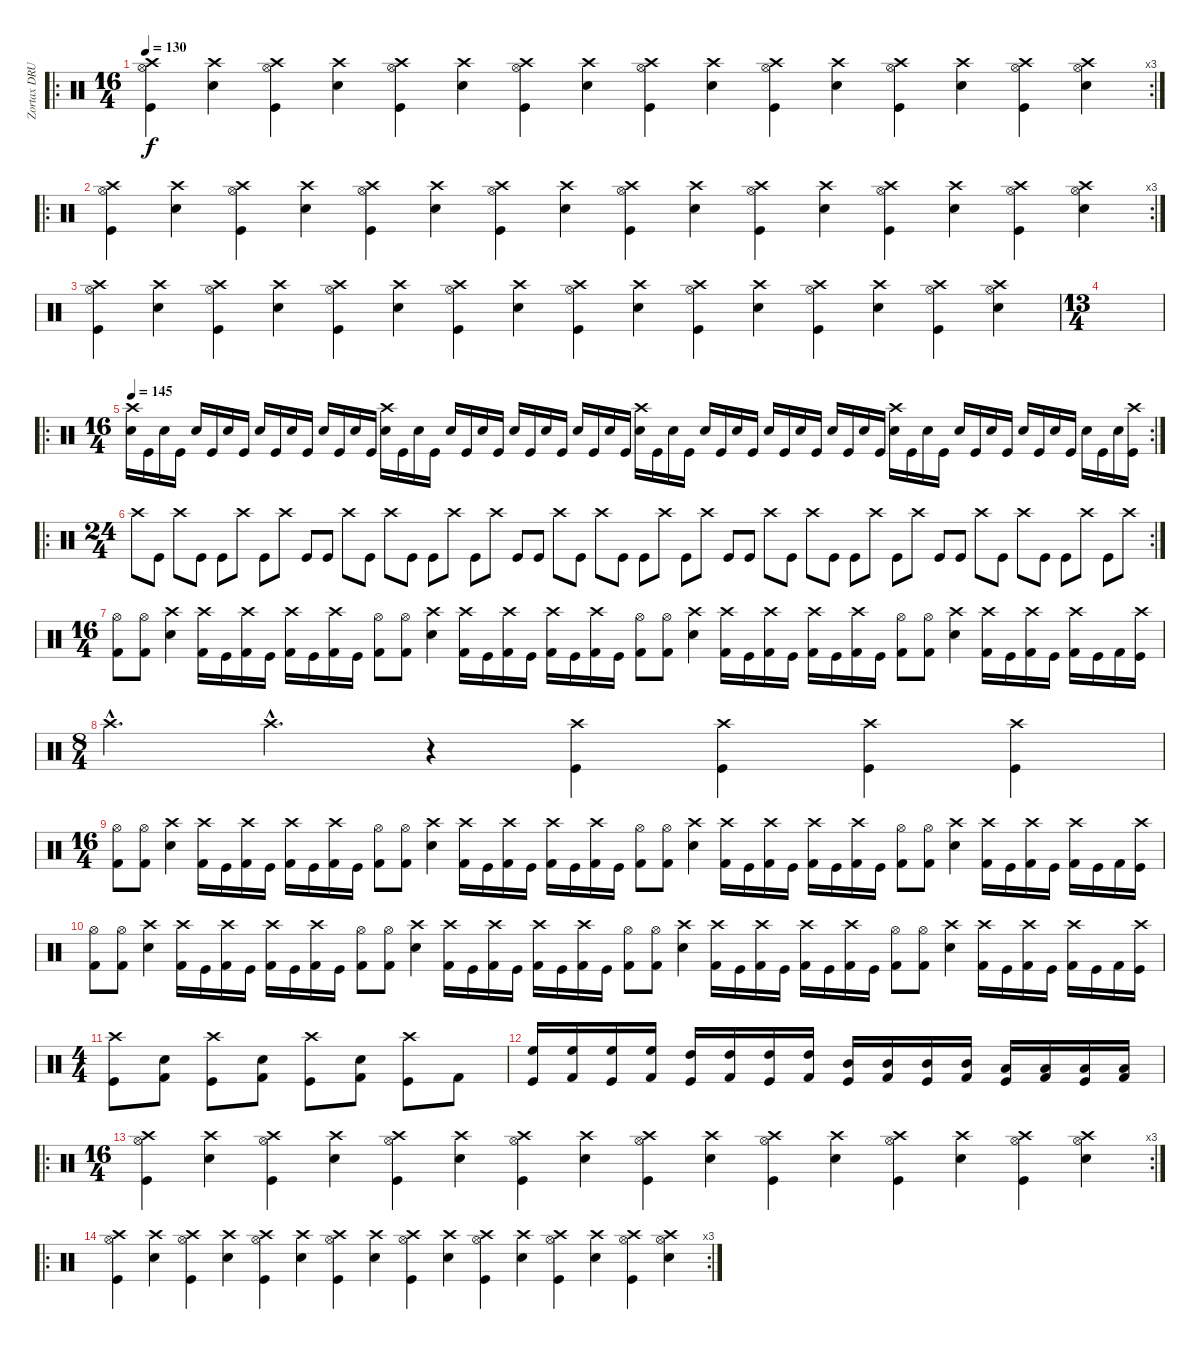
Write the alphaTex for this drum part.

\track ("Zortax DRUMS" "Zortax DRU") {instrument percussion}
\staff {score}
\articulation defaults
\ro
\rc 3
\ts (16 4)
\tempo 130
\clef neutral
\ks c
("Kick (hit)" "Hi-Hat (open)" "Crash high (hit)").4{dy f} ("Snare (hit) 2" "Crash high (hit)").4 ("Kick (hit)" "Hi-Hat (open)" "Crash high (hit)").4 ("Snare (hit) 2" "Crash high (hit)").4 ("Kick (hit)" "Hi-Hat (open)" "Crash high (hit)").4 ("Snare (hit) 2" "Crash high (hit)").4 ("Kick (hit)" "Hi-Hat (open)" "Crash high (hit)").4 ("Snare (hit) 2" "Crash high (hit)").4 ("Kick (hit)" "Hi-Hat (open)" "Crash high (hit)").4 ("Snare (hit) 2" "Crash high (hit)").4 ("Kick (hit)" "Hi-Hat (open)" "Crash high (hit)").4 ("Snare (hit) 2" "Crash high (hit)").4 ("Kick (hit)" "Hi-Hat (open)" "Crash high (hit)").4 ("Snare (hit) 2" "Crash high (hit)").4 ("Kick (hit)" "Hi-Hat (open)" "Crash high (hit)").4 ("Snare (hit) 2" "Hi-Hat (open)" "Crash high (hit)").4 |
\ro
\rc 3
("Kick (hit)" "Hi-Hat (open)" "Crash high (hit)").4 ("Snare (hit) 2" "Crash high (hit)").4 ("Kick (hit)" "Hi-Hat (open)" "Crash high (hit)").4 ("Snare (hit) 2" "Crash high (hit)").4 ("Kick (hit)" "Hi-Hat (open)" "Crash high (hit)").4 ("Snare (hit) 2" "Crash high (hit)").4 ("Kick (hit)" "Hi-Hat (open)" "Crash high (hit)").4 ("Snare (hit) 2" "Crash high (hit)").4 ("Kick (hit)" "Hi-Hat (open)" "Crash high (hit)").4 ("Snare (hit) 2" "Crash high (hit)").4 ("Kick (hit)" "Hi-Hat (open)" "Crash high (hit)").4 ("Snare (hit) 2" "Crash high (hit)").4 ("Kick (hit)" "Hi-Hat (open)" "Crash high (hit)").4 ("Snare (hit) 2" "Crash high (hit)").4 ("Kick (hit)" "Hi-Hat (open)" "Crash high (hit)").4 ("Snare (hit) 2" "Hi-Hat (open)" "Crash high (hit)").4 |
("Kick (hit)" "Hi-Hat (open)" "Crash high (hit)").4 ("Snare (hit) 2" "Crash high (hit)").4 ("Kick (hit)" "Hi-Hat (open)" "Crash high (hit)").4 ("Snare (hit) 2" "Crash high (hit)").4 ("Kick (hit)" "Hi-Hat (open)" "Crash high (hit)").4 ("Snare (hit) 2" "Crash high (hit)").4 ("Kick (hit)" "Hi-Hat (open)" "Crash high (hit)").4 ("Snare (hit) 2" "Crash high (hit)").4 ("Kick (hit)" "Hi-Hat (open)" "Crash high (hit)").4 ("Snare (hit) 2" "Crash high (hit)").4 ("Kick (hit)" "Hi-Hat (open)" "Crash high (hit)").4 ("Snare (hit) 2" "Crash high (hit)").4 ("Kick (hit)" "Hi-Hat (open)" "Crash high (hit)").4 ("Snare (hit) 2" "Crash high (hit)").4 ("Kick (hit)" "Hi-Hat (open)" "Crash high (hit)").4 ("Snare (hit) 2" "Hi-Hat (open)" "Crash high (hit)").4 |
\ts (13 4)
|
\ro
\rc 2
\ts (16 4)
\tempo 145
("Crash high (hit)" "Electric Snare (hit)").16 "Kick (hit)".16 "Electric Snare (hit)".16 "Kick (hit)".16 "Electric Snare (hit)".16 "Kick (hit)".16 "Electric Snare (hit)".16 "Kick (hit)".16 "Electric Snare (hit)".16 "Kick (hit)".16 "Electric Snare (hit)".16 "Kick (hit)".16 "Electric Snare (hit)".16 "Kick (hit)".16 "Electric Snare (hit)".16 "Kick (hit)".16 ("Crash high (hit)" "Electric Snare (hit)").16 "Kick (hit)".16 "Electric Snare (hit)".16 "Kick (hit)".16 "Electric Snare (hit)".16 "Kick (hit)".16 "Electric Snare (hit)".16 "Kick (hit)".16 "Electric Snare (hit)".16 "Kick (hit)".16 "Electric Snare (hit)".16 "Kick (hit)".16 "Electric Snare (hit)".16 "Kick (hit)".16 "Electric Snare (hit)".16 "Kick (hit)".16 ("Crash high (hit)" "Electric Snare (hit)").16 "Kick (hit)".16 "Electric Snare (hit)".16 "Kick (hit)".16 "Electric Snare (hit)".16 "Kick (hit)".16 "Electric Snare (hit)".16 "Kick (hit)".16 "Electric Snare (hit)".16 "Kick (hit)".16 "Electric Snare (hit)".16 "Kick (hit)".16 "Electric Snare (hit)".16 "Kick (hit)".16 "Electric Snare (hit)".16 "Kick (hit)".16 ("Crash high (hit)" "Electric Snare (hit)").16 "Kick (hit)".16 "Electric Snare (hit)".16 "Kick (hit)".16 "Electric Snare (hit)".16 "Kick (hit)".16 "Electric Snare (hit)".16 "Kick (hit)".16 "Electric Snare (hit)".16 "Kick (hit)".16 "Electric Snare (hit)".16 "Kick (hit)".16 "Electric Snare (hit)".16 "Kick (hit)".16 "Electric Snare (hit)".16 ("Crash high (hit)" "Kick (hit)").16 |
\ro
\rc 2
\ts (24 4)
"Crash high (hit)".8 "Kick (hit)".8 "Crash high (hit)".8 "Kick (hit)".8 "Kick (hit)".8 "Crash high (hit)".8 "Kick (hit)".8 "Crash high (hit)".8 "Kick (hit)".8 "Kick (hit)".8 "Crash high (hit)".8 "Kick (hit)".8 "Crash high (hit)".8 "Kick (hit)".8 "Kick (hit)".8 "Crash high (hit)".8 "Kick (hit)".8 "Crash high (hit)".8 "Kick (hit)".8 "Kick (hit)".8 "Crash high (hit)".8 "Kick (hit)".8 "Crash high (hit)".8 "Kick (hit)".8 "Kick (hit)".8 "Crash high (hit)".8 "Kick (hit)".8 "Crash high (hit)".8 "Kick (hit)".8 "Kick (hit)".8 "Crash high (hit)".8 "Kick (hit)".8 "Crash high (hit)".8 "Kick (hit)".8 "Kick (hit)".8 "Crash high (hit)".8 "Kick (hit)".8 "Crash high (hit)".8 "Kick (hit)".8 "Kick (hit)".8 "Crash high (hit)".8 "Kick (hit)".8 "Crash high (hit)".8 "Kick (hit)".8 "Kick (hit)".8 "Crash high (hit)".8 "Kick (hit)".8 "Crash high (hit)".8 |
\ts (16 4)
("Kick (hit) 2" "Hi-Hat (open)").8 ("Kick (hit) 2" "Hi-Hat (open)").8 ("Snare (hit) 2" "Crash high (hit)").4 ("Kick (hit) 2" "Crash high (hit)").16 "Kick (hit)".16 ("Kick (hit) 2" "Crash high (hit)").16 "Kick (hit)".16 ("Kick (hit) 2" "Crash high (hit)").16 "Kick (hit)".16 ("Kick (hit) 2" "Crash high (hit)").16 "Kick (hit)".16 ("Kick (hit) 2" "Hi-Hat (open)").8 ("Kick (hit) 2" "Hi-Hat (open)").8 ("Snare (hit) 2" "Crash high (hit)").4 ("Kick (hit) 2" "Crash high (hit)").16 "Kick (hit)".16 ("Kick (hit) 2" "Crash high (hit)").16 "Kick (hit)".16 ("Kick (hit) 2" "Crash high (hit)").16 "Kick (hit)".16 ("Kick (hit) 2" "Crash high (hit)").16 "Kick (hit)".16 ("Kick (hit) 2" "Hi-Hat (open)").8 ("Kick (hit) 2" "Hi-Hat (open)").8 ("Snare (hit) 2" "Crash high (hit)").4 ("Kick (hit) 2" "Crash high (hit)").16 "Kick (hit)".16 ("Kick (hit) 2" "Crash high (hit)").16 "Kick (hit)".16 ("Kick (hit) 2" "Crash high (hit)").16 "Kick (hit)".16 ("Kick (hit) 2" "Crash high (hit)").16 "Kick (hit)".16 ("Kick (hit) 2" "Hi-Hat (open)").8 ("Kick (hit) 2" "Hi-Hat (open)").8 ("Snare (hit) 2" "Crash high (hit)").4 ("Kick (hit) 2" "Crash high (hit)").16 "Kick (hit)".16 ("Kick (hit) 2" "Crash high (hit)").16 "Kick (hit)".16 ("Kick (hit) 2" "Crash high (hit)").16 "Kick (hit)".16 "Kick (hit) 2".16 ("Kick (hit)" "Crash high (hit)").16 |
\ts (8 4)
"Crash high (hit)"{hac}.4{d} "Crash high (hit)"{hac}.4{d} r.4 ("Crash high (hit)" "Kick (hit)").4 ("Crash high (hit)" "Kick (hit)").4 ("Crash high (hit)" "Kick (hit)").4 ("Crash high (hit)" "Kick (hit)").4 |
\ts (16 4)
("Kick (hit) 2" "Hi-Hat (open)").8 ("Kick (hit) 2" "Hi-Hat (open)").8 ("Snare (hit) 2" "Crash high (hit)").4 ("Kick (hit) 2" "Crash high (hit)").16 "Kick (hit)".16 ("Kick (hit) 2" "Crash high (hit)").16 "Kick (hit)".16 ("Kick (hit) 2" "Crash high (hit)").16 "Kick (hit)".16 ("Kick (hit) 2" "Crash high (hit)").16 "Kick (hit)".16 ("Kick (hit) 2" "Hi-Hat (open)").8 ("Kick (hit) 2" "Hi-Hat (open)").8 ("Snare (hit) 2" "Crash high (hit)").4 ("Kick (hit) 2" "Crash high (hit)").16 "Kick (hit)".16 ("Kick (hit) 2" "Crash high (hit)").16 "Kick (hit)".16 ("Kick (hit) 2" "Crash high (hit)").16 "Kick (hit)".16 ("Kick (hit) 2" "Crash high (hit)").16 "Kick (hit)".16 ("Kick (hit) 2" "Hi-Hat (open)").8 ("Kick (hit) 2" "Hi-Hat (open)").8 ("Snare (hit) 2" "Crash high (hit)").4 ("Kick (hit) 2" "Crash high (hit)").16 "Kick (hit)".16 ("Kick (hit) 2" "Crash high (hit)").16 "Kick (hit)".16 ("Kick (hit) 2" "Crash high (hit)").16 "Kick (hit)".16 ("Kick (hit) 2" "Crash high (hit)").16 "Kick (hit)".16 ("Kick (hit) 2" "Hi-Hat (open)").8 ("Kick (hit) 2" "Hi-Hat (open)").8 ("Snare (hit) 2" "Crash high (hit)").4 ("Kick (hit) 2" "Crash high (hit)").16 "Kick (hit)".16 ("Kick (hit) 2" "Crash high (hit)").16 "Kick (hit)".16 ("Kick (hit) 2" "Crash high (hit)").16 "Kick (hit)".16 "Kick (hit) 2".16 ("Kick (hit)" "Crash high (hit)").16 |
("Kick (hit) 2" "Hi-Hat (open)").8 ("Kick (hit) 2" "Hi-Hat (open)").8 ("Snare (hit) 2" "Crash high (hit)").4 ("Kick (hit) 2" "Crash high (hit)").16 "Kick (hit)".16 ("Kick (hit) 2" "Crash high (hit)").16 "Kick (hit)".16 ("Kick (hit) 2" "Crash high (hit)").16 "Kick (hit)".16 ("Kick (hit) 2" "Crash high (hit)").16 "Kick (hit)".16 ("Kick (hit) 2" "Hi-Hat (open)").8 ("Kick (hit) 2" "Hi-Hat (open)").8 ("Snare (hit) 2" "Crash high (hit)").4 ("Kick (hit) 2" "Crash high (hit)").16 "Kick (hit)".16 ("Kick (hit) 2" "Crash high (hit)").16 "Kick (hit)".16 ("Kick (hit) 2" "Crash high (hit)").16 "Kick (hit)".16 ("Kick (hit) 2" "Crash high (hit)").16 "Kick (hit)".16 ("Kick (hit) 2" "Hi-Hat (open)").8 ("Kick (hit) 2" "Hi-Hat (open)").8 ("Snare (hit) 2" "Crash high (hit)").4 ("Kick (hit) 2" "Crash high (hit)").16 "Kick (hit)".16 ("Kick (hit) 2" "Crash high (hit)").16 "Kick (hit)".16 ("Kick (hit) 2" "Crash high (hit)").16 "Kick (hit)".16 ("Kick (hit) 2" "Crash high (hit)").16 "Kick (hit)".16 ("Kick (hit) 2" "Hi-Hat (open)").8 ("Kick (hit) 2" "Hi-Hat (open)").8 ("Snare (hit) 2" "Crash high (hit)").4 ("Kick (hit) 2" "Crash high (hit)").16 "Kick (hit)".16 ("Kick (hit) 2" "Crash high (hit)").16 "Kick (hit)".16 ("Kick (hit) 2" "Crash high (hit)").16 "Kick (hit)".16 "Kick (hit) 2".16 ("Kick (hit)" "Crash high (hit)").16 |
\ts (4 4)
("Kick (hit)" "Crash high (hit)").8 ("Kick (hit) 2" "Snare (hit) 2").8 ("Kick (hit)" "Crash high (hit)").8 ("Kick (hit) 2" "Snare (hit) 2").8 ("Kick (hit)" "Crash high (hit)").8 ("Kick (hit) 2" "Snare (hit) 2").8 ("Kick (hit)" "Crash high (hit)").8 "Kick (hit) 2".8 |
("Kick (hit)" "High Floor Tom (hit)").16 ("Kick (hit) 2" "High Floor Tom (hit)").16 ("Kick (hit)" "High Floor Tom (hit)").16 ("Kick (hit) 2" "High Floor Tom (hit)").16 ("Kick (hit)" "High Tom (hit)").16 ("Kick (hit) 2" "High Tom (hit)").16 ("Kick (hit)" "High Tom (hit)").16 ("Kick (hit) 2" "High Tom (hit)").16 ("Kick (hit)" "Mid Tom (hit)").16 ("Kick (hit) 2" "Mid Tom (hit)").16 ("Kick (hit)" "Mid Tom (hit)").16 ("Kick (hit) 2" "Mid Tom (hit)").16 ("Kick (hit)" "Low Tom (hit)").16 ("Kick (hit) 2" "Low Tom (hit)").16 ("Kick (hit)" "Low Tom (hit)").16 ("Kick (hit) 2" "Low Tom (hit)").16 |
\ro
\rc 3
\ts (16 4)
("Kick (hit)" "Hi-Hat (open)" "Crash high (hit)").4 ("Snare (hit) 2" "Crash high (hit)").4 ("Kick (hit)" "Hi-Hat (open)" "Crash high (hit)").4 ("Snare (hit) 2" "Crash high (hit)").4 ("Kick (hit)" "Hi-Hat (open)" "Crash high (hit)").4 ("Snare (hit) 2" "Crash high (hit)").4 ("Kick (hit)" "Hi-Hat (open)" "Crash high (hit)").4 ("Snare (hit) 2" "Crash high (hit)").4 ("Kick (hit)" "Hi-Hat (open)" "Crash high (hit)").4 ("Snare (hit) 2" "Crash high (hit)").4 ("Kick (hit)" "Hi-Hat (open)" "Crash high (hit)").4 ("Snare (hit) 2" "Crash high (hit)").4 ("Kick (hit)" "Hi-Hat (open)" "Crash high (hit)").4 ("Snare (hit) 2" "Crash high (hit)").4 ("Kick (hit)" "Hi-Hat (open)" "Crash high (hit)").4 ("Snare (hit) 2" "Hi-Hat (open)" "Crash high (hit)").4 |
\ro
\rc 3
("Kick (hit)" "Hi-Hat (open)" "Crash high (hit)").4 ("Snare (hit) 2" "Crash high (hit)").4 ("Kick (hit)" "Hi-Hat (open)" "Crash high (hit)").4 ("Snare (hit) 2" "Crash high (hit)").4 ("Kick (hit)" "Hi-Hat (open)" "Crash high (hit)").4 ("Snare (hit) 2" "Crash high (hit)").4 ("Kick (hit)" "Hi-Hat (open)" "Crash high (hit)").4 ("Snare (hit) 2" "Crash high (hit)").4 ("Kick (hit)" "Hi-Hat (open)" "Crash high (hit)").4 ("Snare (hit) 2" "Crash high (hit)").4 ("Kick (hit)" "Hi-Hat (open)" "Crash high (hit)").4 ("Snare (hit) 2" "Crash high (hit)").4 ("Kick (hit)" "Hi-Hat (open)" "Crash high (hit)").4 ("Snare (hit) 2" "Crash high (hit)").4 ("Kick (hit)" "Hi-Hat (open)" "Crash high (hit)").4 ("Snare (hit) 2" "Hi-Hat (open)" "Crash high (hit)").4{volume 7}
